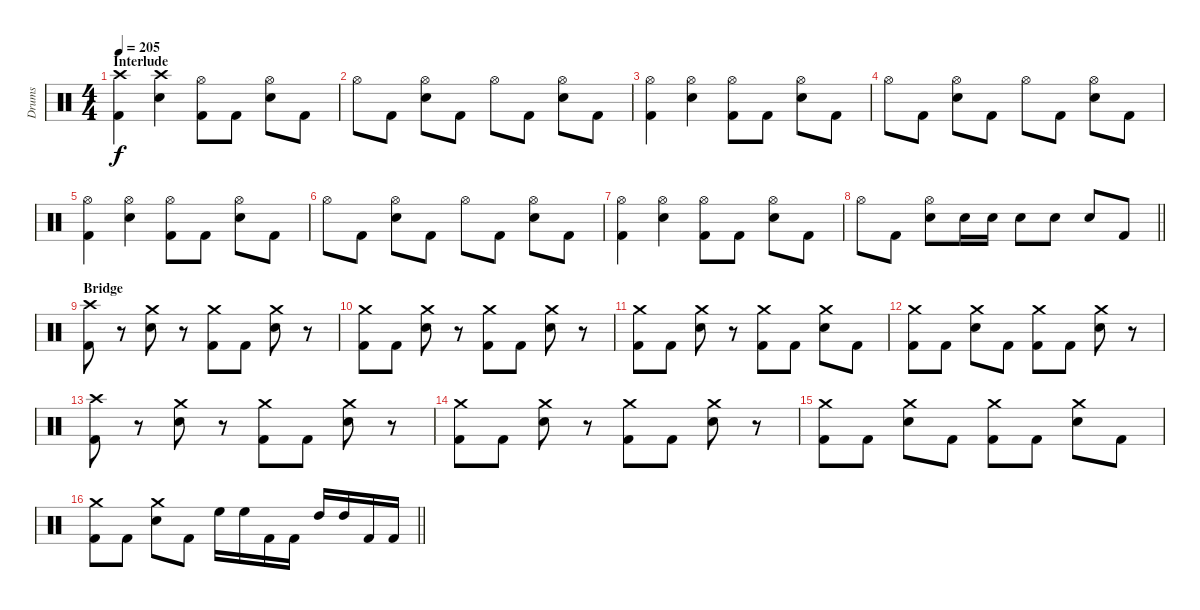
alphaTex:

\track ("Drums" "Drums") {instrument percussion}
\staff {score}
\articulation defaults
\ts (4 4)
\section ("" "Interlude")
\tempo 205
\clef neutral
\ks c
("Crash high (hit)" "Kick (hit) 2").4{dy f} ("Crash high (hit)" "Electric Snare (hit)").4 ("Hi-Hat (open)" "Kick (hit) 2").8 "Kick (hit) 2".8 ("Hi-Hat (open)" "Electric Snare (hit)").8 "Kick (hit) 2".8 |
"Hi-Hat (open)".8 "Kick (hit) 2".8 ("Hi-Hat (open)" "Electric Snare (hit)").8 "Kick (hit) 2".8 "Hi-Hat (open)".8 "Kick (hit) 2".8 ("Hi-Hat (open)" "Electric Snare (hit)").8 "Kick (hit) 2".8 |
("Hi-Hat (open)" "Kick (hit) 2").4 ("Hi-Hat (open)" "Electric Snare (hit)").4 ("Hi-Hat (open)" "Kick (hit) 2").8 "Kick (hit) 2".8 ("Hi-Hat (open)" "Electric Snare (hit)").8 "Kick (hit) 2".8 |
"Hi-Hat (open)".8 "Kick (hit) 2".8 ("Hi-Hat (open)" "Electric Snare (hit)").8 "Kick (hit) 2".8 "Hi-Hat (open)".8 "Kick (hit) 2".8 ("Hi-Hat (open)" "Electric Snare (hit)").8 "Kick (hit) 2".8 |
("Hi-Hat (open)" "Kick (hit) 2").4 ("Hi-Hat (open)" "Electric Snare (hit)").4 ("Hi-Hat (open)" "Kick (hit) 2").8 "Kick (hit) 2".8 ("Hi-Hat (open)" "Electric Snare (hit)").8 "Kick (hit) 2".8 |
"Hi-Hat (open)".8 "Kick (hit) 2".8 ("Hi-Hat (open)" "Electric Snare (hit)").8 "Kick (hit) 2".8 "Hi-Hat (open)".8 "Kick (hit) 2".8 ("Hi-Hat (open)" "Electric Snare (hit)").8 "Kick (hit) 2".8 |
("Hi-Hat (open)" "Kick (hit) 2").4 ("Hi-Hat (open)" "Electric Snare (hit)").4 ("Hi-Hat (open)" "Kick (hit) 2").8 "Kick (hit) 2".8 ("Hi-Hat (open)" "Electric Snare (hit)").8 "Kick (hit) 2".8 |
\barLineRight lightlight "Hi-Hat (open)".8 "Kick (hit) 2".8
("Hi-Hat (open)" "Electric Snare (hit)").8 "Electric Snare (hit)".16 "Electric Snare (hit)".16 "Electric Snare (hit)".8 "Electric Snare (hit)".8 "Electric Snare (hit)".8 "Kick (hit) 2".8 |
\section ("" "Bridge")
("Crash high (hit)" "Kick (hit) 2").8 r.8 ("Crash medium (hit)" "Electric Snare (hit)").8 r.8 ("Crash medium (hit)" "Kick (hit) 2").8 "Kick (hit) 2".8 ("Crash medium (hit)" "Electric Snare (hit)").8 r.8 |
("Crash medium (hit)" "Kick (hit) 2").8 "Kick (hit) 2".8 ("Crash medium (hit)" "Electric Snare (hit)").8 r.8 ("Crash medium (hit)" "Kick (hit) 2").8 "Kick (hit) 2".8 ("Crash medium (hit)" "Electric Snare (hit)").8 r.8 |
("Crash medium (hit)" "Kick (hit) 2").8 "Kick (hit) 2".8 ("Crash medium (hit)" "Electric Snare (hit)").8 r.8 ("Crash medium (hit)" "Kick (hit) 2").8 "Kick (hit) 2".8 ("Crash medium (hit)" "Electric Snare (hit)").8 "Kick (hit) 2".8 |
("Crash medium (hit)" "Kick (hit) 2").8 "Kick (hit) 2".8 ("Crash medium (hit)" "Electric Snare (hit)").8 "Kick (hit) 2".8 ("Crash medium (hit)" "Kick (hit) 2").8 "Kick (hit) 2".8 ("Crash medium (hit)" "Electric Snare (hit)").8 r.8 |
("Crash high (hit)" "Kick (hit) 2").8 r.8 ("Crash medium (hit)" "Electric Snare (hit)").8 r.8 ("Crash medium (hit)" "Kick (hit) 2").8 "Kick (hit) 2".8 ("Crash medium (hit)" "Electric Snare (hit)").8 r.8 |
("Crash medium (hit)" "Kick (hit) 2").8 "Kick (hit) 2".8 ("Crash medium (hit)" "Electric Snare (hit)").8 r.8 ("Crash medium (hit)" "Kick (hit) 2").8 "Kick (hit) 2".8 ("Crash medium (hit)" "Electric Snare (hit)").8 r.8 |
("Crash medium (hit)" "Kick (hit) 2").8 "Kick (hit) 2".8 ("Crash medium (hit)" "Electric Snare (hit)").8 "Kick (hit) 2".8 ("Crash medium (hit)" "Kick (hit) 2").8 "Kick (hit) 2".8 ("Crash medium (hit)" "Electric Snare (hit)").8 "Kick (hit) 2".8 |
\barLineRight lightlight
("Crash medium (hit)" "Kick (hit) 2").8 "Kick (hit) 2".8 ("Crash medium (hit)" "Electric Snare (hit)").8 "Kick (hit) 2".8 "High Floor Tom (hit)".16 "High Floor Tom (hit)".16 "Kick (hit) 2".16 "Kick (hit) 2".16 "High Tom (hit)".16 "High Tom (hit)".16 "Kick (hit) 2".16 "Kick (hit) 2".16
